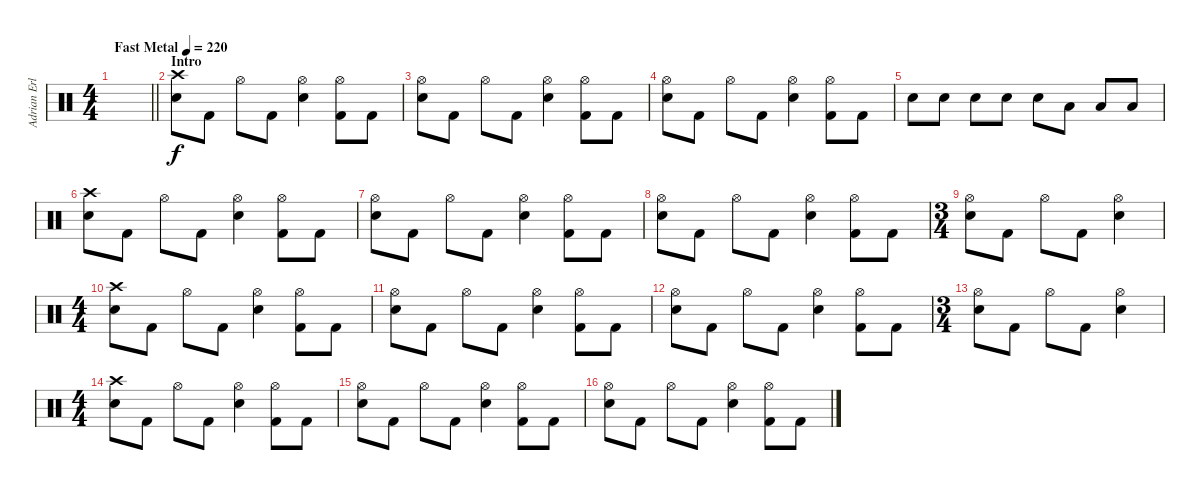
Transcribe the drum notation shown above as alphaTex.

\track ("Adrian Erlandsson" "Adrian Erl") {instrument percussion}
\staff {score}
\articulation defaults
\ts (4 4)
\tempo (220 "Fast Metal")
\clef neutral
\barLineRight lightlight
\ks c
|
\section ("" "Intro")
("Crash high (hit)" "Electric Snare (hit)").8 "Kick (hit) 2".8 "Hi-Hat (open)".8 "Kick (hit) 2".8 ("Hi-Hat (open)" "Electric Snare (hit)").4 ("Hi-Hat (open)" "Kick (hit) 2").8 "Kick (hit) 2".8 |
("Hi-Hat (open)" "Electric Snare (hit)").8 "Kick (hit) 2".8 "Hi-Hat (open)".8 "Kick (hit) 2".8 ("Hi-Hat (open)" "Electric Snare (hit)").4 ("Hi-Hat (open)" "Kick (hit) 2").8 "Kick (hit) 2".8 |
("Hi-Hat (open)" "Electric Snare (hit)").8 "Kick (hit) 2".8 "Hi-Hat (open)".8 "Kick (hit) 2".8 ("Hi-Hat (open)" "Electric Snare (hit)").4 ("Hi-Hat (open)" "Kick (hit) 2").8 "Kick (hit) 2".8 |
"Electric Snare (hit)".8 "Electric Snare (hit)".8 "Electric Snare (hit)".8 "Electric Snare (hit)".8 "Electric Snare (hit)".8 "Low Tom (hit)".8 "Low Tom (hit)".8 "Low Tom (hit)".8 |
("Crash high (hit)" "Electric Snare (hit)").8 "Kick (hit) 2".8 "Hi-Hat (open)".8 "Kick (hit) 2".8 ("Hi-Hat (open)" "Electric Snare (hit)").4 ("Hi-Hat (open)" "Kick (hit) 2").8 "Kick (hit) 2".8 |
("Hi-Hat (open)" "Electric Snare (hit)").8 "Kick (hit) 2".8 "Hi-Hat (open)".8 "Kick (hit) 2".8 ("Hi-Hat (open)" "Electric Snare (hit)").4 ("Hi-Hat (open)" "Kick (hit) 2").8 "Kick (hit) 2".8 |
("Hi-Hat (open)" "Electric Snare (hit)").8 "Kick (hit) 2".8 "Hi-Hat (open)".8 "Kick (hit) 2".8 ("Hi-Hat (open)" "Electric Snare (hit)").4 ("Hi-Hat (open)" "Kick (hit) 2").8 "Kick (hit) 2".8 |
\ts (3 4)
("Hi-Hat (open)" "Electric Snare (hit)").8 "Kick (hit) 2".8 "Hi-Hat (open)".8 "Kick (hit) 2".8 ("Hi-Hat (open)" "Electric Snare (hit)").4 |
\ts (4 4)
("Crash high (hit)" "Electric Snare (hit)").8 "Kick (hit) 2".8 "Hi-Hat (open)".8 "Kick (hit) 2".8 ("Hi-Hat (open)" "Electric Snare (hit)").4 ("Hi-Hat (open)" "Kick (hit) 2").8 "Kick (hit) 2".8 |
("Hi-Hat (open)" "Electric Snare (hit)").8 "Kick (hit) 2".8 "Hi-Hat (open)".8 "Kick (hit) 2".8 ("Hi-Hat (open)" "Electric Snare (hit)").4 ("Hi-Hat (open)" "Kick (hit) 2").8 "Kick (hit) 2".8 |
("Hi-Hat (open)" "Electric Snare (hit)").8 "Kick (hit) 2".8 "Hi-Hat (open)".8 "Kick (hit) 2".8 ("Hi-Hat (open)" "Electric Snare (hit)").4 ("Hi-Hat (open)" "Kick (hit) 2").8 "Kick (hit) 2".8 |
\ts (3 4)
("Hi-Hat (open)" "Electric Snare (hit)").8 "Kick (hit) 2".8 "Hi-Hat (open)".8 "Kick (hit) 2".8 ("Hi-Hat (open)" "Electric Snare (hit)").4 |
\ts (4 4)
("Crash high (hit)" "Electric Snare (hit)").8 "Kick (hit) 2".8 "Hi-Hat (open)".8 "Kick (hit) 2".8 ("Hi-Hat (open)" "Electric Snare (hit)").4 ("Hi-Hat (open)" "Kick (hit) 2").8 "Kick (hit) 2".8 |
("Hi-Hat (open)" "Electric Snare (hit)").8 "Kick (hit) 2".8 "Hi-Hat (open)".8 "Kick (hit) 2".8 ("Hi-Hat (open)" "Electric Snare (hit)").4 ("Hi-Hat (open)" "Kick (hit) 2").8 "Kick (hit) 2".8 |
("Hi-Hat (open)" "Electric Snare (hit)").8 "Kick (hit) 2".8 "Hi-Hat (open)".8 "Kick (hit) 2".8 ("Hi-Hat (open)" "Electric Snare (hit)").4 ("Hi-Hat (open)" "Kick (hit) 2").8 "Kick (hit) 2".8
